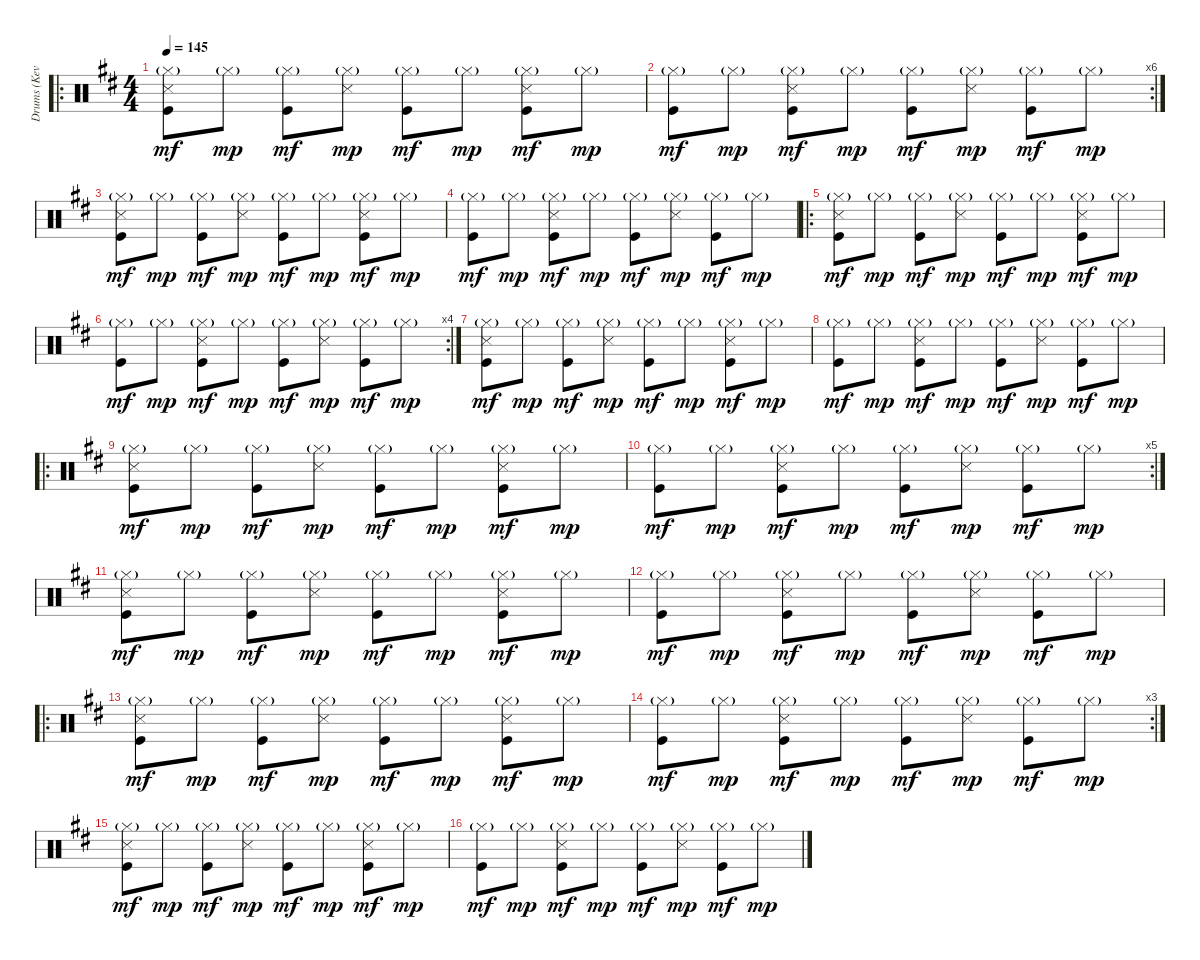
\track ("Drums (Kevin Haskins)" "Drums (Kev") {instrument percussion}
\staff {score}
\articulation defaults
\ro
\ts (4 4)
\tempo 145
\clef neutral
\ks d
("Hi-Hat (closed)"{g} "Snare (side stick) 3" "Kick (hit)").8{dy mf} "Hi-Hat (closed)"{g}.8{dy mp} ("Hi-Hat (closed)"{g} "Kick (hit)").8{dy mf} ("Hi-Hat (closed)"{g} "Snare (side stick) 3").8{dy mp} ("Hi-Hat (closed)"{g} "Kick (hit)").8{dy mf} "Hi-Hat (closed)"{g}.8{dy mp} ("Hi-Hat (closed)"{g} "Snare (side stick) 3" "Kick (hit)").8{dy mf} "Hi-Hat (closed)"{g}.8{dy mp} |
\rc 6
("Hi-Hat (closed)"{g} "Kick (hit)").8{dy mf} "Hi-Hat (closed)"{g}.8{dy mp} ("Hi-Hat (closed)"{g} "Snare (side stick) 3" "Kick (hit)").8{dy mf} "Hi-Hat (closed)"{g}.8{dy mp} ("Hi-Hat (closed)"{g} "Kick (hit)").8{dy mf} ("Hi-Hat (closed)"{g} "Snare (side stick) 3").8{dy mp} ("Hi-Hat (closed)"{g} "Kick (hit)").8{dy mf} "Hi-Hat (closed)"{g}.8{dy mp} |
("Hi-Hat (closed)"{g} "Snare (side stick) 3" "Kick (hit)").8{dy mf} "Hi-Hat (closed)"{g}.8{dy mp} ("Hi-Hat (closed)"{g} "Kick (hit)").8{dy mf} ("Hi-Hat (closed)"{g} "Snare (side stick) 3").8{dy mp} ("Hi-Hat (closed)"{g} "Kick (hit)").8{dy mf} "Hi-Hat (closed)"{g}.8{dy mp} ("Hi-Hat (closed)"{g} "Snare (side stick) 3" "Kick (hit)").8{dy mf} "Hi-Hat (closed)"{g}.8{dy mp} |
("Hi-Hat (closed)"{g} "Kick (hit)").8{dy mf} "Hi-Hat (closed)"{g}.8{dy mp} ("Hi-Hat (closed)"{g} "Snare (side stick) 3" "Kick (hit)").8{dy mf} "Hi-Hat (closed)"{g}.8{dy mp} ("Hi-Hat (closed)"{g} "Kick (hit)").8{dy mf} ("Hi-Hat (closed)"{g} "Snare (side stick) 3").8{dy mp} ("Hi-Hat (closed)"{g} "Kick (hit)").8{dy mf} "Hi-Hat (closed)"{g}.8{dy mp} |
\ro
("Hi-Hat (closed)"{g} "Snare (side stick) 3" "Kick (hit)").8{dy mf} "Hi-Hat (closed)"{g}.8{dy mp} ("Hi-Hat (closed)"{g} "Kick (hit)").8{dy mf} ("Hi-Hat (closed)"{g} "Snare (side stick) 3").8{dy mp} ("Hi-Hat (closed)"{g} "Kick (hit)").8{dy mf} "Hi-Hat (closed)"{g}.8{dy mp} ("Hi-Hat (closed)"{g} "Snare (side stick) 3" "Kick (hit)").8{dy mf} "Hi-Hat (closed)"{g}.8{dy mp} |
\rc 4
("Hi-Hat (closed)"{g} "Kick (hit)").8{dy mf} "Hi-Hat (closed)"{g}.8{dy mp} ("Hi-Hat (closed)"{g} "Snare (side stick) 3" "Kick (hit)").8{dy mf} "Hi-Hat (closed)"{g}.8{dy mp} ("Hi-Hat (closed)"{g} "Kick (hit)").8{dy mf} ("Hi-Hat (closed)"{g} "Snare (side stick) 3").8{dy mp} ("Hi-Hat (closed)"{g} "Kick (hit)").8{dy mf} "Hi-Hat (closed)"{g}.8{dy mp} |
("Hi-Hat (closed)"{g} "Snare (side stick) 3" "Kick (hit)").8{dy mf} "Hi-Hat (closed)"{g}.8{dy mp} ("Hi-Hat (closed)"{g} "Kick (hit)").8{dy mf} ("Hi-Hat (closed)"{g} "Snare (side stick) 3").8{dy mp} ("Hi-Hat (closed)"{g} "Kick (hit)").8{dy mf} "Hi-Hat (closed)"{g}.8{dy mp} ("Hi-Hat (closed)"{g} "Snare (side stick) 3" "Kick (hit)").8{dy mf} "Hi-Hat (closed)"{g}.8{dy mp} |
("Hi-Hat (closed)"{g} "Kick (hit)").8{dy mf} "Hi-Hat (closed)"{g}.8{dy mp} ("Hi-Hat (closed)"{g} "Snare (side stick) 3" "Kick (hit)").8{dy mf} "Hi-Hat (closed)"{g}.8{dy mp} ("Hi-Hat (closed)"{g} "Kick (hit)").8{dy mf} ("Hi-Hat (closed)"{g} "Snare (side stick) 3").8{dy mp} ("Hi-Hat (closed)"{g} "Kick (hit)").8{dy mf} "Hi-Hat (closed)"{g}.8{dy mp} |
\ro
("Hi-Hat (closed)"{g} "Snare (side stick) 3" "Kick (hit)").8{dy mf} "Hi-Hat (closed)"{g}.8{dy mp} ("Hi-Hat (closed)"{g} "Kick (hit)").8{dy mf} ("Hi-Hat (closed)"{g} "Snare (side stick) 3").8{dy mp} ("Hi-Hat (closed)"{g} "Kick (hit)").8{dy mf} "Hi-Hat (closed)"{g}.8{dy mp} ("Hi-Hat (closed)"{g} "Snare (side stick) 3" "Kick (hit)").8{dy mf} "Hi-Hat (closed)"{g}.8{dy mp} |
\rc 5
("Hi-Hat (closed)"{g} "Kick (hit)").8{dy mf} "Hi-Hat (closed)"{g}.8{dy mp} ("Hi-Hat (closed)"{g} "Snare (side stick) 3" "Kick (hit)").8{dy mf} "Hi-Hat (closed)"{g}.8{dy mp} ("Hi-Hat (closed)"{g} "Kick (hit)").8{dy mf} ("Hi-Hat (closed)"{g} "Snare (side stick) 3").8{dy mp} ("Hi-Hat (closed)"{g} "Kick (hit)").8{dy mf} "Hi-Hat (closed)"{g}.8{dy mp} |
("Hi-Hat (closed)"{g} "Snare (side stick) 3" "Kick (hit)").8{dy mf} "Hi-Hat (closed)"{g}.8{dy mp} ("Hi-Hat (closed)"{g} "Kick (hit)").8{dy mf} ("Hi-Hat (closed)"{g} "Snare (side stick) 3").8{dy mp} ("Hi-Hat (closed)"{g} "Kick (hit)").8{dy mf} "Hi-Hat (closed)"{g}.8{dy mp} ("Hi-Hat (closed)"{g} "Snare (side stick) 3" "Kick (hit)").8{dy mf} "Hi-Hat (closed)"{g}.8{dy mp} |
("Hi-Hat (closed)"{g} "Kick (hit)").8{dy mf} "Hi-Hat (closed)"{g}.8{dy mp} ("Hi-Hat (closed)"{g} "Snare (side stick) 3" "Kick (hit)").8{dy mf} "Hi-Hat (closed)"{g}.8{dy mp} ("Hi-Hat (closed)"{g} "Kick (hit)").8{dy mf} ("Hi-Hat (closed)"{g} "Snare (side stick) 3").8{dy mp} ("Hi-Hat (closed)"{g} "Kick (hit)").8{dy mf} "Hi-Hat (closed)"{g}.8{dy mp} |
\ro
("Hi-Hat (closed)"{g} "Snare (side stick) 3" "Kick (hit)").8{dy mf} "Hi-Hat (closed)"{g}.8{dy mp} ("Hi-Hat (closed)"{g} "Kick (hit)").8{dy mf} ("Hi-Hat (closed)"{g} "Snare (side stick) 3").8{dy mp} ("Hi-Hat (closed)"{g} "Kick (hit)").8{dy mf} "Hi-Hat (closed)"{g}.8{dy mp} ("Hi-Hat (closed)"{g} "Snare (side stick) 3" "Kick (hit)").8{dy mf} "Hi-Hat (closed)"{g}.8{dy mp} |
\rc 3
("Hi-Hat (closed)"{g} "Kick (hit)").8{dy mf} "Hi-Hat (closed)"{g}.8{dy mp} ("Hi-Hat (closed)"{g} "Snare (side stick) 3" "Kick (hit)").8{dy mf} "Hi-Hat (closed)"{g}.8{dy mp} ("Hi-Hat (closed)"{g} "Kick (hit)").8{dy mf} ("Hi-Hat (closed)"{g} "Snare (side stick) 3").8{dy mp} ("Hi-Hat (closed)"{g} "Kick (hit)").8{dy mf} "Hi-Hat (closed)"{g}.8{dy mp} |
("Hi-Hat (closed)"{g} "Snare (side stick) 3" "Kick (hit)").8{dy mf} "Hi-Hat (closed)"{g}.8{dy mp} ("Hi-Hat (closed)"{g} "Kick (hit)").8{dy mf} ("Hi-Hat (closed)"{g} "Snare (side stick) 3").8{dy mp} ("Hi-Hat (closed)"{g} "Kick (hit)").8{dy mf} "Hi-Hat (closed)"{g}.8{dy mp} ("Hi-Hat (closed)"{g} "Snare (side stick) 3" "Kick (hit)").8{dy mf} "Hi-Hat (closed)"{g}.8{dy mp} |
("Hi-Hat (closed)"{g} "Kick (hit)").8{dy mf} "Hi-Hat (closed)"{g}.8{dy mp} ("Hi-Hat (closed)"{g} "Snare (side stick) 3" "Kick (hit)").8{dy mf} "Hi-Hat (closed)"{g}.8{dy mp} ("Hi-Hat (closed)"{g} "Kick (hit)").8{dy mf} ("Hi-Hat (closed)"{g} "Snare (side stick) 3").8{dy mp} ("Hi-Hat (closed)"{g} "Kick (hit)").8{dy mf} "Hi-Hat (closed)"{g}.8{dy mp}
